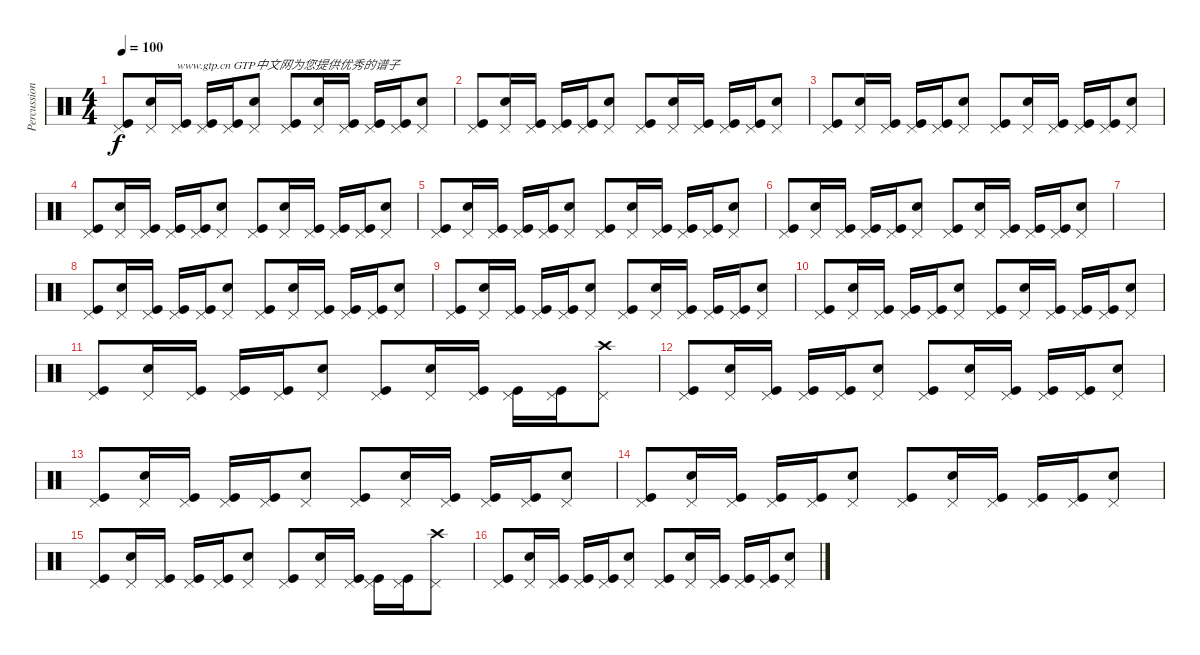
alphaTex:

\track ("Percussion" "Percussion") {instrument percussion}
\staff {score}
\articulation defaults
\ts (4 4)
\tempo 100
\clef neutral
\ks c
("Kick (hit)" "Pedal Hi-Hat (hit)").8{dy f} ("Snare (hit) 2" "Pedal Hi-Hat (hit)").16 ("Kick (hit)" "Pedal Hi-Hat (hit)").16{txt "www.gtp.cn GTP中文网为您提供优秀的谱子"} ("Kick (hit)" "Pedal Hi-Hat (hit)").16 ("Kick (hit)" "Pedal Hi-Hat (hit)").16 ("Snare (hit) 2" "Pedal Hi-Hat (hit)").8 ("Kick (hit)" "Pedal Hi-Hat (hit)").8 ("Snare (hit) 2" "Pedal Hi-Hat (hit)").16 ("Kick (hit)" "Pedal Hi-Hat (hit)").16 ("Kick (hit)" "Pedal Hi-Hat (hit)").16 ("Kick (hit)" "Pedal Hi-Hat (hit)").16 ("Snare (hit) 2" "Pedal Hi-Hat (hit)").8 |
("Kick (hit)" "Pedal Hi-Hat (hit)").8 ("Snare (hit) 2" "Pedal Hi-Hat (hit)").16 ("Kick (hit)" "Pedal Hi-Hat (hit)").16 ("Kick (hit)" "Pedal Hi-Hat (hit)").16 ("Kick (hit)" "Pedal Hi-Hat (hit)").16 ("Snare (hit) 2" "Pedal Hi-Hat (hit)").8 ("Kick (hit)" "Pedal Hi-Hat (hit)").8 ("Snare (hit) 2" "Pedal Hi-Hat (hit)").16 ("Kick (hit)" "Pedal Hi-Hat (hit)").16 ("Kick (hit)" "Pedal Hi-Hat (hit)").16 ("Kick (hit)" "Pedal Hi-Hat (hit)").16 ("Snare (hit) 2" "Pedal Hi-Hat (hit)").8 |
("Kick (hit)" "Pedal Hi-Hat (hit)").8 ("Snare (hit) 2" "Pedal Hi-Hat (hit)").16 ("Kick (hit)" "Pedal Hi-Hat (hit)").16 ("Kick (hit)" "Pedal Hi-Hat (hit)").16 ("Kick (hit)" "Pedal Hi-Hat (hit)").16 ("Snare (hit) 2" "Pedal Hi-Hat (hit)").8 ("Kick (hit)" "Pedal Hi-Hat (hit)").8 ("Snare (hit) 2" "Pedal Hi-Hat (hit)").16 ("Kick (hit)" "Pedal Hi-Hat (hit)").16 ("Kick (hit)" "Pedal Hi-Hat (hit)").16 ("Kick (hit)" "Pedal Hi-Hat (hit)").16 ("Snare (hit) 2" "Pedal Hi-Hat (hit)").8 |
("Kick (hit)" "Pedal Hi-Hat (hit)").8 ("Snare (hit) 2" "Pedal Hi-Hat (hit)").16 ("Kick (hit)" "Pedal Hi-Hat (hit)").16 ("Kick (hit)" "Pedal Hi-Hat (hit)").16 ("Kick (hit)" "Pedal Hi-Hat (hit)").16 ("Snare (hit) 2" "Pedal Hi-Hat (hit)").8 ("Kick (hit)" "Pedal Hi-Hat (hit)").8 ("Snare (hit) 2" "Pedal Hi-Hat (hit)").16 ("Kick (hit)" "Pedal Hi-Hat (hit)").16 ("Kick (hit)" "Pedal Hi-Hat (hit)").16 ("Kick (hit)" "Pedal Hi-Hat (hit)").16 ("Snare (hit) 2" "Pedal Hi-Hat (hit)").8 |
("Kick (hit)" "Pedal Hi-Hat (hit)").8 ("Snare (hit) 2" "Pedal Hi-Hat (hit)").16 ("Kick (hit)" "Pedal Hi-Hat (hit)").16 ("Kick (hit)" "Pedal Hi-Hat (hit)").16 ("Kick (hit)" "Pedal Hi-Hat (hit)").16 ("Snare (hit) 2" "Pedal Hi-Hat (hit)").8 ("Kick (hit)" "Pedal Hi-Hat (hit)").8 ("Snare (hit) 2" "Pedal Hi-Hat (hit)").16 ("Kick (hit)" "Pedal Hi-Hat (hit)").16 ("Kick (hit)" "Pedal Hi-Hat (hit)").16 ("Kick (hit)" "Pedal Hi-Hat (hit)").16 ("Snare (hit) 2" "Pedal Hi-Hat (hit)").8 |
("Kick (hit)" "Pedal Hi-Hat (hit)").8 ("Snare (hit) 2" "Pedal Hi-Hat (hit)").16 ("Kick (hit)" "Pedal Hi-Hat (hit)").16 ("Kick (hit)" "Pedal Hi-Hat (hit)").16 ("Kick (hit)" "Pedal Hi-Hat (hit)").16 ("Snare (hit) 2" "Pedal Hi-Hat (hit)").8 ("Kick (hit)" "Pedal Hi-Hat (hit)").8 ("Snare (hit) 2" "Pedal Hi-Hat (hit)").16 ("Kick (hit)" "Pedal Hi-Hat (hit)").16 ("Kick (hit)" "Pedal Hi-Hat (hit)").16 ("Kick (hit)" "Pedal Hi-Hat (hit)").16 ("Snare (hit) 2" "Pedal Hi-Hat (hit)").8 |
|
("Kick (hit)" "Pedal Hi-Hat (hit)").8 ("Snare (hit) 2" "Pedal Hi-Hat (hit)").16 ("Kick (hit)" "Pedal Hi-Hat (hit)").16 ("Kick (hit)" "Pedal Hi-Hat (hit)").16 ("Kick (hit)" "Pedal Hi-Hat (hit)").16 ("Snare (hit) 2" "Pedal Hi-Hat (hit)").8 ("Kick (hit)" "Pedal Hi-Hat (hit)").8 ("Snare (hit) 2" "Pedal Hi-Hat (hit)").16 ("Kick (hit)" "Pedal Hi-Hat (hit)").16 ("Kick (hit)" "Pedal Hi-Hat (hit)").16 ("Kick (hit)" "Pedal Hi-Hat (hit)").16 ("Snare (hit) 2" "Pedal Hi-Hat (hit)").8 |
("Kick (hit)" "Pedal Hi-Hat (hit)").8 ("Snare (hit) 2" "Pedal Hi-Hat (hit)").16 ("Kick (hit)" "Pedal Hi-Hat (hit)").16 ("Kick (hit)" "Pedal Hi-Hat (hit)").16 ("Kick (hit)" "Pedal Hi-Hat (hit)").16 ("Snare (hit) 2" "Pedal Hi-Hat (hit)").8 ("Kick (hit)" "Pedal Hi-Hat (hit)").8 ("Snare (hit) 2" "Pedal Hi-Hat (hit)").16 ("Kick (hit)" "Pedal Hi-Hat (hit)").16 ("Kick (hit)" "Pedal Hi-Hat (hit)").16 ("Kick (hit)" "Pedal Hi-Hat (hit)").16 ("Snare (hit) 2" "Pedal Hi-Hat (hit)").8 |
("Kick (hit)" "Pedal Hi-Hat (hit)").8 ("Snare (hit) 2" "Pedal Hi-Hat (hit)").16 ("Kick (hit)" "Pedal Hi-Hat (hit)").16 ("Kick (hit)" "Pedal Hi-Hat (hit)").16 ("Kick (hit)" "Pedal Hi-Hat (hit)").16 ("Snare (hit) 2" "Pedal Hi-Hat (hit)").8 ("Kick (hit)" "Pedal Hi-Hat (hit)").8 ("Snare (hit) 2" "Pedal Hi-Hat (hit)").16 ("Kick (hit)" "Pedal Hi-Hat (hit)").16 ("Kick (hit)" "Pedal Hi-Hat (hit)").16 ("Kick (hit)" "Pedal Hi-Hat (hit)").16 ("Snare (hit) 2" "Pedal Hi-Hat (hit)").8 |
("Kick (hit)" "Pedal Hi-Hat (hit)").8 ("Snare (hit) 2" "Pedal Hi-Hat (hit)").16 ("Kick (hit)" "Pedal Hi-Hat (hit)").16 ("Kick (hit)" "Pedal Hi-Hat (hit)").16 ("Kick (hit)" "Pedal Hi-Hat (hit)").16 ("Snare (hit) 2" "Pedal Hi-Hat (hit)").8 ("Kick (hit)" "Pedal Hi-Hat (hit)").8 ("Snare (hit) 2" "Pedal Hi-Hat (hit)").16 ("Kick (hit)" "Pedal Hi-Hat (hit)").16 ("Kick (hit)" "Pedal Hi-Hat (hit)").16 ("Kick (hit)" "Pedal Hi-Hat (hit)").16 ("Crash high (hit)" "Pedal Hi-Hat (hit)").8 |
("Kick (hit)" "Pedal Hi-Hat (hit)").8 ("Snare (hit) 2" "Pedal Hi-Hat (hit)").16 ("Kick (hit)" "Pedal Hi-Hat (hit)").16 ("Kick (hit)" "Pedal Hi-Hat (hit)").16 ("Kick (hit)" "Pedal Hi-Hat (hit)").16 ("Snare (hit) 2" "Pedal Hi-Hat (hit)").8 ("Kick (hit)" "Pedal Hi-Hat (hit)").8 ("Snare (hit) 2" "Pedal Hi-Hat (hit)").16 ("Kick (hit)" "Pedal Hi-Hat (hit)").16 ("Kick (hit)" "Pedal Hi-Hat (hit)").16 ("Kick (hit)" "Pedal Hi-Hat (hit)").16 ("Snare (hit) 2" "Pedal Hi-Hat (hit)").8 |
("Kick (hit)" "Pedal Hi-Hat (hit)").8 ("Snare (hit) 2" "Pedal Hi-Hat (hit)").16 ("Kick (hit)" "Pedal Hi-Hat (hit)").16 ("Kick (hit)" "Pedal Hi-Hat (hit)").16 ("Kick (hit)" "Pedal Hi-Hat (hit)").16 ("Snare (hit) 2" "Pedal Hi-Hat (hit)").8 ("Kick (hit)" "Pedal Hi-Hat (hit)").8 ("Snare (hit) 2" "Pedal Hi-Hat (hit)").16 ("Kick (hit)" "Pedal Hi-Hat (hit)").16 ("Kick (hit)" "Pedal Hi-Hat (hit)").16 ("Kick (hit)" "Pedal Hi-Hat (hit)").16 ("Snare (hit) 2" "Pedal Hi-Hat (hit)").8 |
("Kick (hit)" "Pedal Hi-Hat (hit)").8 ("Snare (hit) 2" "Pedal Hi-Hat (hit)").16 ("Kick (hit)" "Pedal Hi-Hat (hit)").16 ("Kick (hit)" "Pedal Hi-Hat (hit)").16 ("Kick (hit)" "Pedal Hi-Hat (hit)").16 ("Snare (hit) 2" "Pedal Hi-Hat (hit)").8 ("Kick (hit)" "Pedal Hi-Hat (hit)").8 ("Snare (hit) 2" "Pedal Hi-Hat (hit)").16 ("Kick (hit)" "Pedal Hi-Hat (hit)").16 ("Kick (hit)" "Pedal Hi-Hat (hit)").16 ("Kick (hit)" "Pedal Hi-Hat (hit)").16 ("Snare (hit) 2" "Pedal Hi-Hat (hit)").8 |
("Kick (hit)" "Pedal Hi-Hat (hit)").8 ("Snare (hit) 2" "Pedal Hi-Hat (hit)").16 ("Kick (hit)" "Pedal Hi-Hat (hit)").16 ("Kick (hit)" "Pedal Hi-Hat (hit)").16 ("Kick (hit)" "Pedal Hi-Hat (hit)").16 ("Snare (hit) 2" "Pedal Hi-Hat (hit)").8 ("Kick (hit)" "Pedal Hi-Hat (hit)").8 ("Snare (hit) 2" "Pedal Hi-Hat (hit)").16 ("Kick (hit)" "Pedal Hi-Hat (hit)").16 ("Kick (hit)" "Pedal Hi-Hat (hit)").16 ("Kick (hit)" "Pedal Hi-Hat (hit)").16 ("Crash high (hit)" "Pedal Hi-Hat (hit)").8 |
("Kick (hit)" "Pedal Hi-Hat (hit)").8 ("Snare (hit) 2" "Pedal Hi-Hat (hit)").16 ("Kick (hit)" "Pedal Hi-Hat (hit)").16 ("Kick (hit)" "Pedal Hi-Hat (hit)").16 ("Kick (hit)" "Pedal Hi-Hat (hit)").16 ("Snare (hit) 2" "Pedal Hi-Hat (hit)").8 ("Kick (hit)" "Pedal Hi-Hat (hit)").8 ("Snare (hit) 2" "Pedal Hi-Hat (hit)").16 ("Kick (hit)" "Pedal Hi-Hat (hit)").16 ("Kick (hit)" "Pedal Hi-Hat (hit)").16 ("Kick (hit)" "Pedal Hi-Hat (hit)").16 ("Snare (hit) 2" "Pedal Hi-Hat (hit)").8
